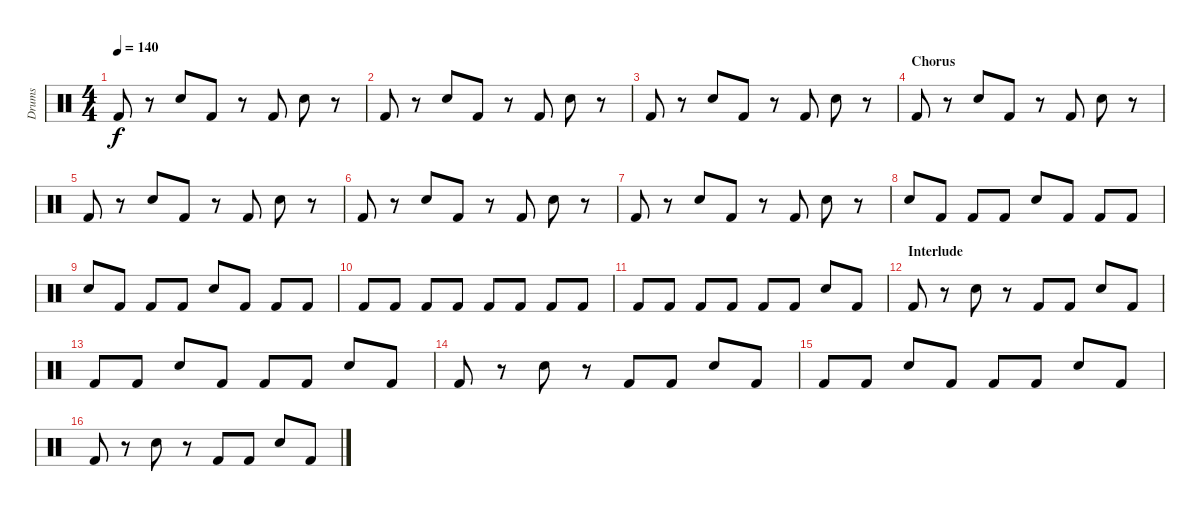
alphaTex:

\track ("Drums" "Drums") {instrument percussion}
\staff {score}
\articulation defaults
\ts (4 4)
\tempo 140
\clef neutral
\ks c "Kick (hit) 2".8{dy f}
r.8 "Snare (hit) 2".8 "Kick (hit) 2".8 r.8 "Kick (hit) 2".8 "Snare (hit) 2".8 r.8 |
"Kick (hit) 2".8 r.8 "Snare (hit) 2".8 "Kick (hit) 2".8 r.8 "Kick (hit) 2".8 "Snare (hit) 2".8 r.8 |
"Kick (hit) 2".8 r.8 "Snare (hit) 2".8 "Kick (hit) 2".8 r.8 "Kick (hit) 2".8 "Snare (hit) 2".8 r.8 |
\section ("" "Chorus")
"Kick (hit) 2".8 r.8 "Snare (hit) 2".8 "Kick (hit) 2".8 r.8 "Kick (hit) 2".8 "Snare (hit) 2".8 r.8 |
"Kick (hit) 2".8 r.8 "Snare (hit) 2".8 "Kick (hit) 2".8 r.8 "Kick (hit) 2".8 "Snare (hit) 2".8 r.8 |
"Kick (hit) 2".8 r.8 "Snare (hit) 2".8 "Kick (hit) 2".8 r.8 "Kick (hit) 2".8 "Snare (hit) 2".8 r.8 |
"Kick (hit) 2".8 r.8 "Snare (hit) 2".8 "Kick (hit) 2".8 r.8 "Kick (hit) 2".8 "Snare (hit) 2".8 r.8 |
"Snare (hit) 2".8 "Kick (hit) 2".8 "Kick (hit) 2".8 "Kick (hit) 2".8 "Snare (hit) 2".8 "Kick (hit) 2".8 "Kick (hit) 2".8 "Kick (hit) 2".8 |
"Snare (hit) 2".8 "Kick (hit) 2".8 "Kick (hit) 2".8 "Kick (hit) 2".8 "Snare (hit) 2".8 "Kick (hit) 2".8 "Kick (hit) 2".8 "Kick (hit) 2".8 |
"Kick (hit) 2".8 "Kick (hit) 2".8 "Kick (hit) 2".8 "Kick (hit) 2".8 "Kick (hit) 2".8 "Kick (hit) 2".8 "Kick (hit) 2".8 "Kick (hit) 2".8 |
"Kick (hit) 2".8 "Kick (hit) 2".8 "Kick (hit) 2".8 "Kick (hit) 2".8 "Kick (hit) 2".8 "Kick (hit) 2".8 "Snare (hit) 2".8 "Kick (hit) 2".8 |
\section ("" "Interlude")
"Kick (hit) 2".8 r.8 "Snare (hit) 2".8 r.8 "Kick (hit) 2".8 "Kick (hit) 2".8 "Snare (hit) 2".8 "Kick (hit) 2".8 |
"Kick (hit) 2".8 "Kick (hit) 2".8 "Snare (hit) 2".8 "Kick (hit) 2".8 "Kick (hit) 2".8 "Kick (hit) 2".8 "Snare (hit) 2".8 "Kick (hit) 2".8 |
"Kick (hit) 2".8 r.8 "Snare (hit) 2".8 r.8 "Kick (hit) 2".8 "Kick (hit) 2".8 "Snare (hit) 2".8 "Kick (hit) 2".8 |
"Kick (hit) 2".8 "Kick (hit) 2".8 "Snare (hit) 2".8 "Kick (hit) 2".8 "Kick (hit) 2".8 "Kick (hit) 2".8 "Snare (hit) 2".8 "Kick (hit) 2".8 |
"Kick (hit) 2".8 r.8 "Snare (hit) 2".8 r.8 "Kick (hit) 2".8 "Kick (hit) 2".8 "Snare (hit) 2".8 "Kick (hit) 2".8
